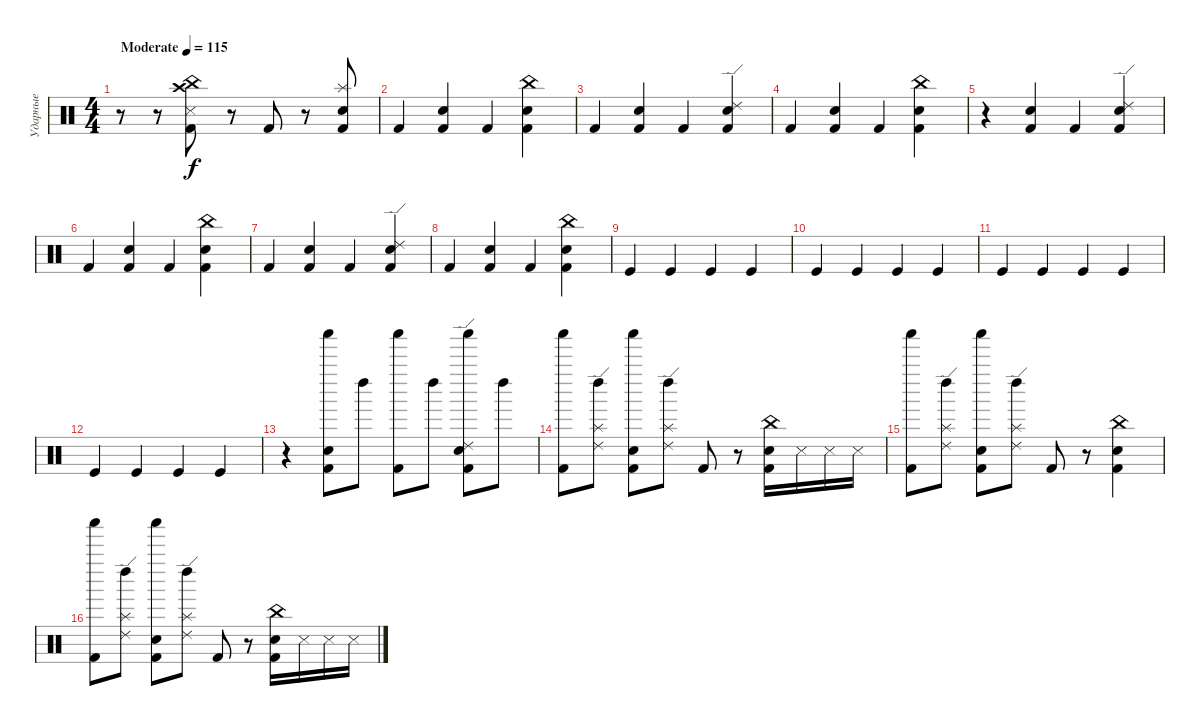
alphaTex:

\track ("Ударные" "Ударные") {instrument percussion}
\staff {score}
\articulation defaults
\ts (4 4)
\tempo (115 "Moderate")
\clef neutral
\ks c
r.8{dy f} r.8 ("Crash high (hit)" "China (hit)" "Snare (side stick) 3" "Kick (hit) 2").8 r.8 "Kick (hit) 2".8 r.8 ("Kick (hit) 2" "Splash (hit)" "Snare (hit) 2").8 |
"Kick (hit) 2".4 ("Kick (hit) 2" "Snare (hit) 2").4 "Kick (hit) 2".4 ("Kick (hit) 2" "China (hit)" "Snare (hit) 2").4 |
"Kick (hit) 2".4 ("Kick (hit) 2" "Snare (hit) 2").4 "Kick (hit) 2".4 ("Kick (hit) 2" "Ride (edge) 2" "Snare (hit) 2").4 |
"Kick (hit) 2".4 ("Kick (hit) 2" "Snare (hit) 2").4 "Kick (hit) 2".4 ("Kick (hit) 2" "China (hit)" "Snare (hit) 2").4 |
r.4 ("Kick (hit) 2" "Snare (hit) 2").4 "Kick (hit) 2".4 ("Kick (hit) 2" "Ride (edge) 2" "Snare (hit) 2").4 |
"Kick (hit) 2".4 ("Kick (hit) 2" "Snare (hit) 2").4 "Kick (hit) 2".4 ("Kick (hit) 2" "China (hit)" "Snare (hit) 2").4 |
"Kick (hit) 2".4 ("Kick (hit) 2" "Snare (hit) 2").4 "Kick (hit) 2".4 ("Kick (hit) 2" "Ride (edge) 2" "Snare (hit) 2").4 |
"Kick (hit) 2".4 ("Kick (hit) 2" "Snare (hit) 2").4 "Kick (hit) 2".4 ("Kick (hit) 2" "China (hit)" "Snare (hit) 2").4 |
"Kick (hit)".4 "Kick (hit)".4 "Kick (hit)".4 "Kick (hit)".4 |
"Kick (hit)".4 "Kick (hit)".4 "Kick (hit)".4 "Kick (hit)".4 |
"Kick (hit)".4 "Kick (hit)".4 "Kick (hit)".4 "Kick (hit)".4 |
"Kick (hit)".4 "Kick (hit)".4 "Kick (hit)".4 "Kick (hit)".4 |
r.4 ("Kick (hit) 2" "Snare (hit) 2" "Shaker (hit)").8 "Left Maraca (hit)".8 ("Kick (hit) 2" "Shaker (hit)").8 "Left Maraca (hit)".8 ("Kick (hit) 2" "Ride (edge) 2" "Snare (hit) 2" "Shaker (hit)").8 "Left Maraca (hit)".8 |
("Kick (hit) 2" "Shaker (hit)").8 ("Left Maraca (hit)" "Ride (edge) 2" "Splash (hit)").8 ("Kick (hit) 2" "Snare (hit) 2" "Shaker (hit)").8 ("Left Maraca (hit)" "Ride (edge) 2" "Splash (hit)").8 "Kick (hit) 2".8 r.8 ("Kick (hit) 2" "China (hit)" "Snare (hit) 2").16 "Snare (side stick) 3".16 "Snare (side stick) 3".16 "Snare (side stick) 3".16 |
("Kick (hit) 2" "Shaker (hit)").8 ("Left Maraca (hit)" "Ride (edge) 2" "Splash (hit)").8 ("Kick (hit) 2" "Snare (hit) 2" "Shaker (hit)").8 ("Left Maraca (hit)" "Ride (edge) 2" "Splash (hit)").8 "Kick (hit) 2".8 r.8 ("Kick (hit) 2" "China (hit)" "Snare (hit) 2").4 |
("Kick (hit) 2" "Shaker (hit)").8 ("Left Maraca (hit)" "Ride (edge) 2" "Splash (hit)").8 ("Kick (hit) 2" "Snare (hit) 2" "Shaker (hit)").8 ("Left Maraca (hit)" "Ride (edge) 2" "Splash (hit)").8 "Kick (hit) 2".8 r.8 ("Kick (hit) 2" "China (hit)" "Snare (hit) 2").16 "Snare (side stick) 3".16 "Snare (side stick) 3".16 "Snare (side stick) 3".16
